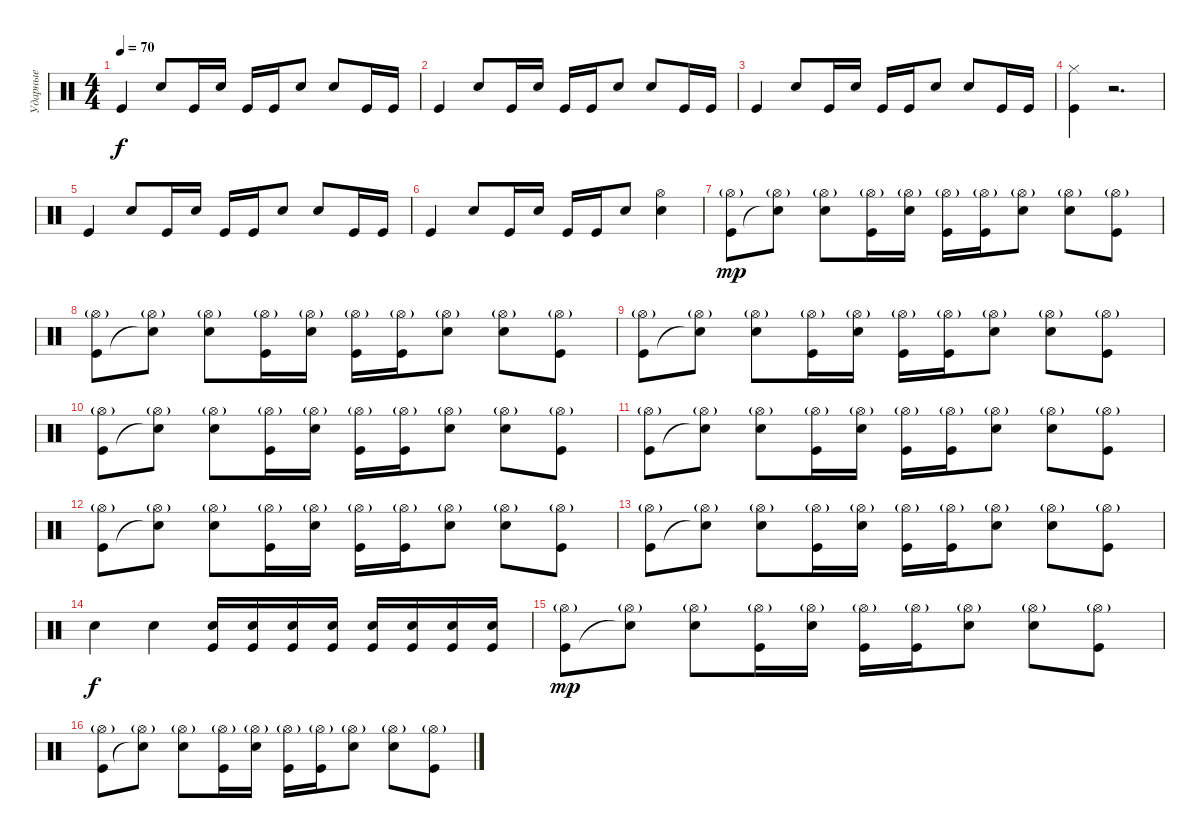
\track ("Ударные" "Ударные") {instrument percussion}
\staff {score}
\articulation defaults
\ts (4 4)
\tempo 70
\clef neutral
\ks c "Kick (hit)".4{dy f} "Snare (hit) 2".8 "Kick (hit)".16 "Snare (hit) 2".16 "Kick (hit)".16 "Kick (hit)".16 "Snare (hit) 2".8 "Snare (hit) 2".8 "Kick (hit)".16 "Kick (hit)".16
|
"Kick (hit)".4 "Snare (hit) 2".8 "Kick (hit)".16 "Snare (hit) 2".16 "Kick (hit)".16 "Kick (hit)".16 "Snare (hit) 2".8 "Snare (hit) 2".8 "Kick (hit)".16 "Kick (hit)".16 |
"Kick (hit)".4 "Snare (hit) 2".8 "Kick (hit)".16 "Snare (hit) 2".16 "Kick (hit)".16 "Kick (hit)".16 "Snare (hit) 2".8 "Snare (hit) 2".8 "Kick (hit)".16 "Kick (hit)".16 |
("Kick (hit)" "Hi-Hat (closed)").4 r.2{d} |
"Kick (hit)".4 "Snare (hit) 2".8 "Kick (hit)".16 "Snare (hit) 2".16 "Kick (hit)".16 "Kick (hit)".16 "Snare (hit) 2".8 "Snare (hit) 2".8 "Kick (hit)".16 "Kick (hit)".16 |
"Kick (hit)".4 "Snare (hit) 2".8 "Kick (hit)".16 "Snare (hit) 2".16 "Kick (hit)".16 "Kick (hit)".16 "Snare (hit) 2".8 ("Hi-Hat (open)" "Snare (hit) 2").4 |
("Hi-Hat (open)"{g} "Kick (hit)").8{dy mp} ("Hi-Hat (open)"{g} "Snare (hit)"{t}).8 ("Hi-Hat (open)"{g} "Snare (hit) 2").8 ("Hi-Hat (open)"{g} "Kick (hit)").16 ("Hi-Hat (open)"{g} "Snare (hit) 2").16 ("Hi-Hat (open)"{g} "Kick (hit)").16 ("Hi-Hat (open)"{g} "Kick (hit)").16 ("Hi-Hat (open)"{g} "Snare (hit) 2").8 ("Hi-Hat (open)"{g} "Snare (hit) 2").8 ("Hi-Hat (open)"{g} "Kick (hit)").8 |
("Hi-Hat (open)"{g} "Kick (hit)").8 ("Hi-Hat (open)"{g} "Snare (hit)"{t}).8 ("Hi-Hat (open)"{g} "Snare (hit) 2").8 ("Hi-Hat (open)"{g} "Kick (hit)").16 ("Hi-Hat (open)"{g} "Snare (hit) 2").16 ("Hi-Hat (open)"{g} "Kick (hit)").16 ("Hi-Hat (open)"{g} "Kick (hit)").16 ("Hi-Hat (open)"{g} "Snare (hit) 2").8 ("Hi-Hat (open)"{g} "Snare (hit) 2").8 ("Hi-Hat (open)"{g} "Kick (hit)").8 |
("Hi-Hat (open)"{g} "Kick (hit)").8 ("Hi-Hat (open)"{g} "Snare (hit)"{t}).8 ("Hi-Hat (open)"{g} "Snare (hit) 2").8 ("Hi-Hat (open)"{g} "Kick (hit)").16 ("Hi-Hat (open)"{g} "Snare (hit) 2").16 ("Hi-Hat (open)"{g} "Kick (hit)").16 ("Hi-Hat (open)"{g} "Kick (hit)").16 ("Hi-Hat (open)"{g} "Snare (hit) 2").8 ("Hi-Hat (open)"{g} "Snare (hit) 2").8 ("Hi-Hat (open)"{g} "Kick (hit)").8 |
("Hi-Hat (open)"{g} "Kick (hit)").8 ("Hi-Hat (open)"{g} "Snare (hit)"{t}).8 ("Hi-Hat (open)"{g} "Snare (hit) 2").8 ("Hi-Hat (open)"{g} "Kick (hit)").16 ("Hi-Hat (open)"{g} "Snare (hit) 2").16 ("Hi-Hat (open)"{g} "Kick (hit)").16 ("Hi-Hat (open)"{g} "Kick (hit)").16 ("Hi-Hat (open)"{g} "Snare (hit) 2").8 ("Hi-Hat (open)"{g} "Snare (hit) 2").8 ("Hi-Hat (open)"{g} "Kick (hit)").8 |
("Hi-Hat (open)"{g} "Kick (hit)").8 ("Hi-Hat (open)"{g} "Snare (hit)"{t}).8 ("Hi-Hat (open)"{g} "Snare (hit) 2").8 ("Hi-Hat (open)"{g} "Kick (hit)").16 ("Hi-Hat (open)"{g} "Snare (hit) 2").16 ("Hi-Hat (open)"{g} "Kick (hit)").16 ("Hi-Hat (open)"{g} "Kick (hit)").16 ("Hi-Hat (open)"{g} "Snare (hit) 2").8 ("Hi-Hat (open)"{g} "Snare (hit) 2").8 ("Hi-Hat (open)"{g} "Kick (hit)").8 |
("Hi-Hat (open)"{g} "Kick (hit)").8 ("Hi-Hat (open)"{g} "Snare (hit)"{t}).8 ("Hi-Hat (open)"{g} "Snare (hit) 2").8 ("Hi-Hat (open)"{g} "Kick (hit)").16 ("Hi-Hat (open)"{g} "Snare (hit) 2").16 ("Hi-Hat (open)"{g} "Kick (hit)").16 ("Hi-Hat (open)"{g} "Kick (hit)").16 ("Hi-Hat (open)"{g} "Snare (hit) 2").8 ("Hi-Hat (open)"{g} "Snare (hit) 2").8 ("Hi-Hat (open)"{g} "Kick (hit)").8 |
("Hi-Hat (open)"{g} "Kick (hit)").8 ("Hi-Hat (open)"{g} "Snare (hit)"{t}).8 ("Hi-Hat (open)"{g} "Snare (hit) 2").8 ("Hi-Hat (open)"{g} "Kick (hit)").16 ("Hi-Hat (open)"{g} "Snare (hit) 2").16 ("Hi-Hat (open)"{g} "Kick (hit)").16 ("Hi-Hat (open)"{g} "Kick (hit)").16 ("Hi-Hat (open)"{g} "Snare (hit) 2").8 ("Hi-Hat (open)"{g} "Snare (hit) 2").8 ("Hi-Hat (open)"{g} "Kick (hit)").8 |
"Snare (hit) 2".4{dy f} "Snare (hit) 2".4 ("Snare (hit) 2" "Kick (hit)").16 ("Snare (hit) 2" "Kick (hit)").16 ("Snare (hit) 2" "Kick (hit)").16 ("Snare (hit) 2" "Kick (hit)").16 ("Snare (hit) 2" "Kick (hit)").16 ("Snare (hit) 2" "Kick (hit)").16 ("Snare (hit) 2" "Kick (hit)").16 ("Snare (hit) 2" "Kick (hit)").16 |
("Hi-Hat (open)"{g} "Kick (hit)").8{dy mp} ("Hi-Hat (open)"{g} "Snare (hit)"{t}).8 ("Hi-Hat (open)"{g} "Snare (hit) 2").8 ("Hi-Hat (open)"{g} "Kick (hit)").16 ("Hi-Hat (open)"{g} "Snare (hit) 2").16 ("Hi-Hat (open)"{g} "Kick (hit)").16 ("Hi-Hat (open)"{g} "Kick (hit)").16 ("Hi-Hat (open)"{g} "Snare (hit) 2").8 ("Hi-Hat (open)"{g} "Snare (hit) 2").8 ("Hi-Hat (open)"{g} "Kick (hit)").8 |
("Hi-Hat (open)"{g} "Kick (hit)").8 ("Hi-Hat (open)"{g} "Snare (hit)"{t}).8 ("Hi-Hat (open)"{g} "Snare (hit) 2").8 ("Hi-Hat (open)"{g} "Kick (hit)").16 ("Hi-Hat (open)"{g} "Snare (hit) 2").16 ("Hi-Hat (open)"{g} "Kick (hit)").16 ("Hi-Hat (open)"{g} "Kick (hit)").16 ("Hi-Hat (open)"{g} "Snare (hit) 2").8 ("Hi-Hat (open)"{g} "Snare (hit) 2").8 ("Hi-Hat (open)"{g} "Kick (hit)").8
